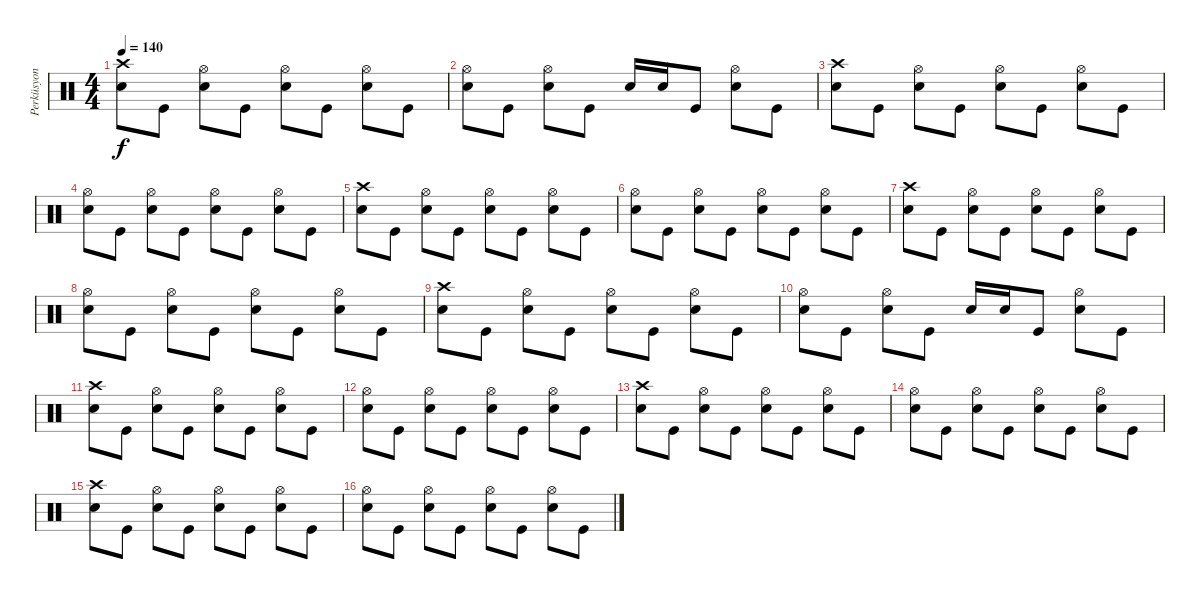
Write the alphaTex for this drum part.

\track ("Perküsyon" "Perküsyon") {instrument percussion}
\staff {score}
\articulation defaults
\ts (4 4)
\tempo 140
\clef neutral
\ks c
("Electric Snare (hit)" "Crash high (hit)").8{dy f} "Kick (hit)".8 ("Electric Snare (hit)" "Hi-Hat (open)").8 "Kick (hit)".8 ("Electric Snare (hit)" "Hi-Hat (open)").8 "Kick (hit)".8 ("Electric Snare (hit)" "Hi-Hat (open)").8 "Kick (hit)".8 |
("Electric Snare (hit)" "Hi-Hat (open)").8 "Kick (hit)".8 ("Electric Snare (hit)" "Hi-Hat (open)").8 "Kick (hit)".8 "Electric Snare (hit)".16 "Electric Snare (hit)".16 "Kick (hit)".8 ("Electric Snare (hit)" "Hi-Hat (open)").8 "Kick (hit)".8 |
("Electric Snare (hit)" "Crash high (hit)").8 "Kick (hit)".8 ("Electric Snare (hit)" "Hi-Hat (open)").8 "Kick (hit)".8 ("Electric Snare (hit)" "Hi-Hat (open)").8 "Kick (hit)".8 ("Electric Snare (hit)" "Hi-Hat (open)").8 "Kick (hit)".8 |
("Electric Snare (hit)" "Hi-Hat (open)").8 "Kick (hit)".8 ("Electric Snare (hit)" "Hi-Hat (open)").8 "Kick (hit)".8 ("Electric Snare (hit)" "Hi-Hat (open)").8 "Kick (hit)".8 ("Electric Snare (hit)" "Hi-Hat (open)").8 "Kick (hit)".8 |
("Electric Snare (hit)" "Crash high (hit)").8 "Kick (hit)".8 ("Electric Snare (hit)" "Hi-Hat (open)").8 "Kick (hit)".8 ("Electric Snare (hit)" "Hi-Hat (open)").8 "Kick (hit)".8 ("Electric Snare (hit)" "Hi-Hat (open)").8 "Kick (hit)".8 |
("Electric Snare (hit)" "Hi-Hat (open)").8 "Kick (hit)".8 ("Electric Snare (hit)" "Hi-Hat (open)").8 "Kick (hit)".8 ("Electric Snare (hit)" "Hi-Hat (open)").8 "Kick (hit)".8 ("Electric Snare (hit)" "Hi-Hat (open)").8 "Kick (hit)".8 |
("Electric Snare (hit)" "Crash high (hit)").8 "Kick (hit)".8 ("Electric Snare (hit)" "Hi-Hat (open)").8 "Kick (hit)".8 ("Electric Snare (hit)" "Hi-Hat (open)").8 "Kick (hit)".8 ("Electric Snare (hit)" "Hi-Hat (open)").8 "Kick (hit)".8 |
("Electric Snare (hit)" "Hi-Hat (open)").8 "Kick (hit)".8 ("Electric Snare (hit)" "Hi-Hat (open)").8 "Kick (hit)".8 ("Electric Snare (hit)" "Hi-Hat (open)").8 "Kick (hit)".8 ("Electric Snare (hit)" "Hi-Hat (open)").8 "Kick (hit)".8 |
("Electric Snare (hit)" "Crash high (hit)").8 "Kick (hit)".8 ("Electric Snare (hit)" "Hi-Hat (open)").8 "Kick (hit)".8 ("Electric Snare (hit)" "Hi-Hat (open)").8 "Kick (hit)".8 ("Electric Snare (hit)" "Hi-Hat (open)").8 "Kick (hit)".8 |
("Electric Snare (hit)" "Hi-Hat (open)").8 "Kick (hit)".8 ("Electric Snare (hit)" "Hi-Hat (open)").8 "Kick (hit)".8 "Electric Snare (hit)".16 "Electric Snare (hit)".16 "Kick (hit)".8 ("Electric Snare (hit)" "Hi-Hat (open)").8 "Kick (hit)".8 |
("Electric Snare (hit)" "Crash high (hit)").8 "Kick (hit)".8 ("Electric Snare (hit)" "Hi-Hat (open)").8 "Kick (hit)".8 ("Electric Snare (hit)" "Hi-Hat (open)").8 "Kick (hit)".8 ("Electric Snare (hit)" "Hi-Hat (open)").8 "Kick (hit)".8 |
("Electric Snare (hit)" "Hi-Hat (open)").8 "Kick (hit)".8 ("Electric Snare (hit)" "Hi-Hat (open)").8 "Kick (hit)".8 ("Electric Snare (hit)" "Hi-Hat (open)").8 "Kick (hit)".8 ("Electric Snare (hit)" "Hi-Hat (open)").8 "Kick (hit)".8 |
("Electric Snare (hit)" "Crash high (hit)").8 "Kick (hit)".8 ("Electric Snare (hit)" "Hi-Hat (open)").8 "Kick (hit)".8 ("Electric Snare (hit)" "Hi-Hat (open)").8 "Kick (hit)".8 ("Electric Snare (hit)" "Hi-Hat (open)").8 "Kick (hit)".8 |
("Electric Snare (hit)" "Hi-Hat (open)").8 "Kick (hit)".8 ("Electric Snare (hit)" "Hi-Hat (open)").8 "Kick (hit)".8 ("Electric Snare (hit)" "Hi-Hat (open)").8 "Kick (hit)".8 ("Electric Snare (hit)" "Hi-Hat (open)").8 "Kick (hit)".8 |
("Electric Snare (hit)" "Crash high (hit)").8 "Kick (hit)".8 ("Electric Snare (hit)" "Hi-Hat (open)").8 "Kick (hit)".8 ("Electric Snare (hit)" "Hi-Hat (open)").8 "Kick (hit)".8 ("Electric Snare (hit)" "Hi-Hat (open)").8 "Kick (hit)".8 |
("Electric Snare (hit)" "Hi-Hat (open)").8 "Kick (hit)".8 ("Electric Snare (hit)" "Hi-Hat (open)").8 "Kick (hit)".8 ("Electric Snare (hit)" "Hi-Hat (open)").8 "Kick (hit)".8 ("Electric Snare (hit)" "Hi-Hat (open)").8 "Kick (hit)".8
